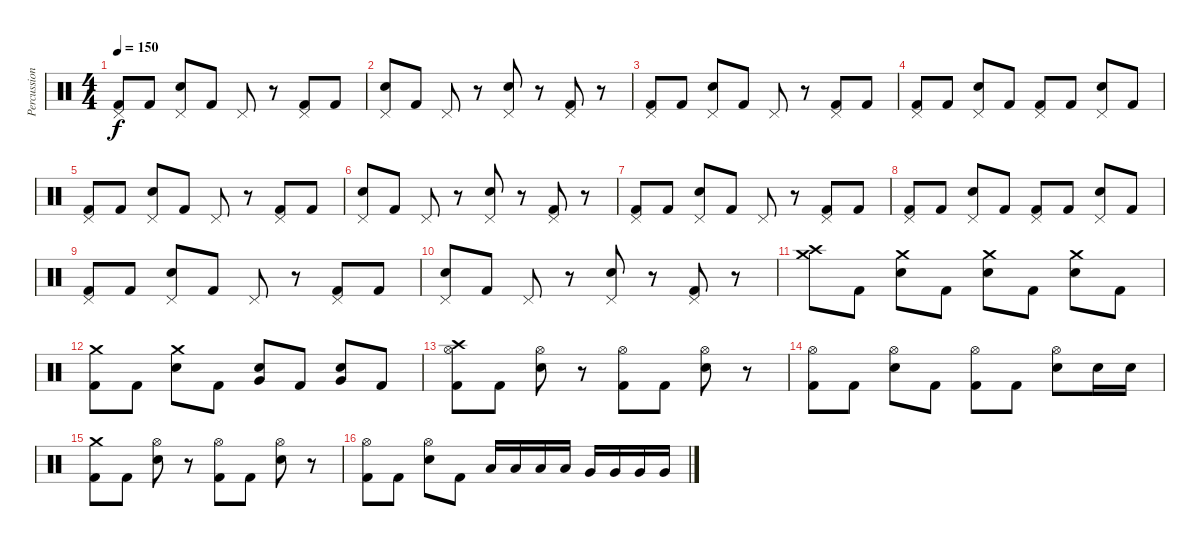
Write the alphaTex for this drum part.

\track ("Percussion" "Percussion") {instrument percussion}
\staff {score}
\articulation defaults
\ts (4 4)
\tempo 150
\clef neutral
\ks c
("Pedal Hi-Hat (hit)" "Kick (hit) 2").8{dy f} "Kick (hit) 2".8 ("Pedal Hi-Hat (hit)" "Electric Snare (hit)").8 "Kick (hit) 2".8 "Pedal Hi-Hat (hit)".8 r.8 ("Pedal Hi-Hat (hit)" "Kick (hit) 2").8 "Kick (hit) 2".8 |
("Pedal Hi-Hat (hit)" "Electric Snare (hit)").8 "Kick (hit) 2".8 "Pedal Hi-Hat (hit)".8 r.8 ("Pedal Hi-Hat (hit)" "Electric Snare (hit)").8 r.8 ("Pedal Hi-Hat (hit)" "Kick (hit) 2").8 r.8 |
("Pedal Hi-Hat (hit)" "Kick (hit) 2").8 "Kick (hit) 2".8 ("Pedal Hi-Hat (hit)" "Electric Snare (hit)").8 "Kick (hit) 2".8 "Pedal Hi-Hat (hit)".8 r.8 ("Pedal Hi-Hat (hit)" "Kick (hit) 2").8 "Kick (hit) 2".8 |
("Pedal Hi-Hat (hit)" "Kick (hit) 2").8 "Kick (hit) 2".8 ("Pedal Hi-Hat (hit)" "Electric Snare (hit)").8 "Kick (hit) 2".8 ("Pedal Hi-Hat (hit)" "Kick (hit) 2").8 "Kick (hit) 2".8 ("Pedal Hi-Hat (hit)" "Electric Snare (hit)").8 "Kick (hit) 2".8 |
("Pedal Hi-Hat (hit)" "Kick (hit) 2").8 "Kick (hit) 2".8 ("Pedal Hi-Hat (hit)" "Electric Snare (hit)").8 "Kick (hit) 2".8 "Pedal Hi-Hat (hit)".8 r.8 ("Pedal Hi-Hat (hit)" "Kick (hit) 2").8 "Kick (hit) 2".8 |
("Pedal Hi-Hat (hit)" "Electric Snare (hit)").8 "Kick (hit) 2".8 "Pedal Hi-Hat (hit)".8 r.8 ("Pedal Hi-Hat (hit)" "Electric Snare (hit)").8 r.8 ("Pedal Hi-Hat (hit)" "Kick (hit) 2").8 r.8 |
("Pedal Hi-Hat (hit)" "Kick (hit) 2").8 "Kick (hit) 2".8 ("Pedal Hi-Hat (hit)" "Electric Snare (hit)").8 "Kick (hit) 2".8 "Pedal Hi-Hat (hit)".8 r.8 ("Pedal Hi-Hat (hit)" "Kick (hit) 2").8 "Kick (hit) 2".8 |
("Pedal Hi-Hat (hit)" "Kick (hit) 2").8 "Kick (hit) 2".8 ("Pedal Hi-Hat (hit)" "Electric Snare (hit)").8 "Kick (hit) 2".8 ("Pedal Hi-Hat (hit)" "Kick (hit) 2").8 "Kick (hit) 2".8 ("Pedal Hi-Hat (hit)" "Electric Snare (hit)").8 "Kick (hit) 2".8 |
("Pedal Hi-Hat (hit)" "Kick (hit) 2").8 "Kick (hit) 2".8 ("Pedal Hi-Hat (hit)" "Electric Snare (hit)").8 "Kick (hit) 2".8 "Pedal Hi-Hat (hit)".8 r.8 ("Pedal Hi-Hat (hit)" "Kick (hit) 2").8 "Kick (hit) 2".8 |
("Pedal Hi-Hat (hit)" "Electric Snare (hit)").8 "Kick (hit) 2".8 "Pedal Hi-Hat (hit)".8 r.8 ("Pedal Hi-Hat (hit)" "Electric Snare (hit)").8 r.8 ("Pedal Hi-Hat (hit)" "Kick (hit) 2").8 r.8 |
("Crash medium (hit)" "Crash high (hit)").8 "Kick (hit) 2".8 ("Crash medium (hit)" "Electric Snare (hit)").8 "Kick (hit) 2".8 ("Crash medium (hit)" "Electric Snare (hit)").8 "Kick (hit) 2".8 ("Crash medium (hit)" "Electric Snare (hit)").8 "Kick (hit) 2".8 |
("Crash medium (hit)" "Kick (hit) 2").8 "Kick (hit) 2".8 ("Crash medium (hit)" "Electric Snare (hit)").8 "Kick (hit) 2".8 ("Very Low Tom (hit)" "Electric Snare (hit)").8 "Kick (hit) 2".8 ("Very Low Tom (hit)" "Electric Snare (hit)").8 "Kick (hit) 2".8 |
("Crash high (hit)" "Hi-Hat (open)" "Kick (hit) 2").8 "Kick (hit) 2".8 ("Hi-Hat (open)" "Electric Snare (hit)").8 r.8 ("Hi-Hat (open)" "Kick (hit) 2").8 "Kick (hit) 2".8 ("Hi-Hat (open)" "Electric Snare (hit)").8 r.8 |
("Hi-Hat (open)" "Kick (hit) 2").8 "Kick (hit) 2".8 ("Hi-Hat (open)" "Electric Snare (hit)").8 "Kick (hit) 2".8 ("Hi-Hat (open)" "Kick (hit) 2").8 "Kick (hit) 2".8 ("Hi-Hat (open)" "Electric Snare (hit)").8 "Electric Snare (hit)".16 "Electric Snare (hit)".16 |
("Crash medium (hit)" "Kick (hit) 2").8 "Kick (hit) 2".8 ("Hi-Hat (open)" "Electric Snare (hit)").8 r.8 ("Hi-Hat (open)" "Kick (hit) 2").8 "Kick (hit) 2".8 ("Hi-Hat (open)" "Electric Snare (hit)").8 r.8 |
("Hi-Hat (open)" "Kick (hit) 2").8 "Kick (hit) 2".8 ("Hi-Hat (open)" "Electric Snare (hit)").8 "Kick (hit) 2".8 "Low Tom (hit)".16 "Low Tom (hit)".16 "Low Tom (hit)".16 "Low Tom (hit)".16 "Very Low Tom (hit)".16 "Very Low Tom (hit)".16 "Very Low Tom (hit)".16 "Very Low Tom (hit)".16
